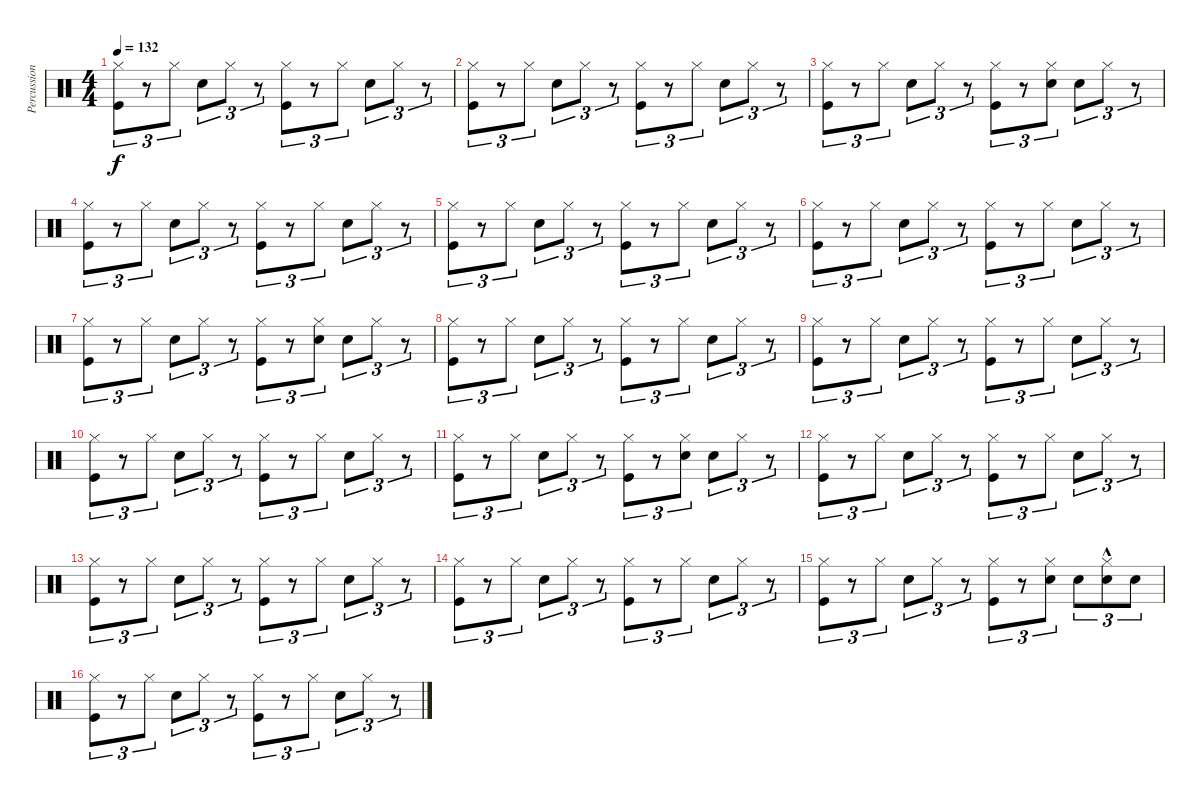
\track ("Percussions" "Percussion") {instrument percussion}
\staff {score}
\articulation defaults
\ts (4 4)
\tempo 132
\clef neutral
\ks c
("Kick (hit)" "Hi-Hat (closed)").8{tu (3 2) dy f} r.8{tu (3 2)} "Hi-Hat (closed)".8{tu (3 2)} "Snare (hit) 2".8{tu (3 2)} "Hi-Hat (closed)".8{tu (3 2)} r.8{tu (3 2)} ("Kick (hit)" "Hi-Hat (closed)").8{tu (3 2)} r.8{tu (3 2)} "Hi-Hat (closed)".8{tu (3 2)} "Snare (hit) 2".8{tu (3 2)} "Hi-Hat (closed)".8{tu (3 2)} r.8{tu (3 2)} |
("Kick (hit)" "Hi-Hat (closed)").8{tu (3 2)} r.8{tu (3 2)} "Hi-Hat (closed)".8{tu (3 2)} "Snare (hit) 2".8{tu (3 2)} "Hi-Hat (closed)".8{tu (3 2)} r.8{tu (3 2)} ("Kick (hit)" "Hi-Hat (closed)").8{tu (3 2)} r.8{tu (3 2)} "Hi-Hat (closed)".8{tu (3 2)} "Snare (hit) 2".8{tu (3 2)} "Hi-Hat (closed)".8{tu (3 2)} r.8{tu (3 2)} |
("Kick (hit)" "Hi-Hat (closed)").8{tu (3 2)} r.8{tu (3 2)} "Hi-Hat (closed)".8{tu (3 2)} "Snare (hit) 2".8{tu (3 2)} "Hi-Hat (closed)".8{tu (3 2)} r.8{tu (3 2)} ("Kick (hit)" "Hi-Hat (closed)").8{tu (3 2)} r.8{tu (3 2)} ("Hi-Hat (closed)" "Snare (hit) 2").8{tu (3 2)} "Snare (hit) 2".8{tu (3 2)} "Hi-Hat (closed)".8{tu (3 2)} r.8{tu (3 2)} |
("Kick (hit)" "Hi-Hat (closed)").8{tu (3 2)} r.8{tu (3 2)} "Hi-Hat (closed)".8{tu (3 2)} "Snare (hit) 2".8{tu (3 2)} "Hi-Hat (closed)".8{tu (3 2)} r.8{tu (3 2)} ("Kick (hit)" "Hi-Hat (closed)").8{tu (3 2)} r.8{tu (3 2)} "Hi-Hat (closed)".8{tu (3 2)} "Snare (hit) 2".8{tu (3 2)} "Hi-Hat (closed)".8{tu (3 2)} r.8{tu (3 2)} |
("Kick (hit)" "Hi-Hat (closed)").8{tu (3 2)} r.8{tu (3 2)} "Hi-Hat (closed)".8{tu (3 2)} "Snare (hit) 2".8{tu (3 2)} "Hi-Hat (closed)".8{tu (3 2)} r.8{tu (3 2)} ("Kick (hit)" "Hi-Hat (closed)").8{tu (3 2)} r.8{tu (3 2)} "Hi-Hat (closed)".8{tu (3 2)} "Snare (hit) 2".8{tu (3 2)} "Hi-Hat (closed)".8{tu (3 2)} r.8{tu (3 2)} |
("Kick (hit)" "Hi-Hat (closed)").8{tu (3 2)} r.8{tu (3 2)} "Hi-Hat (closed)".8{tu (3 2)} "Snare (hit) 2".8{tu (3 2)} "Hi-Hat (closed)".8{tu (3 2)} r.8{tu (3 2)} ("Kick (hit)" "Hi-Hat (closed)").8{tu (3 2)} r.8{tu (3 2)} "Hi-Hat (closed)".8{tu (3 2)} "Snare (hit) 2".8{tu (3 2)} "Hi-Hat (closed)".8{tu (3 2)} r.8{tu (3 2)} |
("Kick (hit)" "Hi-Hat (closed)").8{tu (3 2)} r.8{tu (3 2)} "Hi-Hat (closed)".8{tu (3 2)} "Snare (hit) 2".8{tu (3 2)} "Hi-Hat (closed)".8{tu (3 2)} r.8{tu (3 2)} ("Kick (hit)" "Hi-Hat (closed)").8{tu (3 2)} r.8{tu (3 2)} ("Hi-Hat (closed)" "Snare (hit) 2").8{tu (3 2)} "Snare (hit) 2".8{tu (3 2)} "Hi-Hat (closed)".8{tu (3 2)} r.8{tu (3 2)} |
("Kick (hit)" "Hi-Hat (closed)").8{tu (3 2)} r.8{tu (3 2)} "Hi-Hat (closed)".8{tu (3 2)} "Snare (hit) 2".8{tu (3 2)} "Hi-Hat (closed)".8{tu (3 2)} r.8{tu (3 2)} ("Kick (hit)" "Hi-Hat (closed)").8{tu (3 2)} r.8{tu (3 2)} "Hi-Hat (closed)".8{tu (3 2)} "Snare (hit) 2".8{tu (3 2)} "Hi-Hat (closed)".8{tu (3 2)} r.8{tu (3 2)} |
("Kick (hit)" "Hi-Hat (closed)").8{tu (3 2)} r.8{tu (3 2)} "Hi-Hat (closed)".8{tu (3 2)} "Snare (hit) 2".8{tu (3 2)} "Hi-Hat (closed)".8{tu (3 2)} r.8{tu (3 2)} ("Kick (hit)" "Hi-Hat (closed)").8{tu (3 2)} r.8{tu (3 2)} "Hi-Hat (closed)".8{tu (3 2)} "Snare (hit) 2".8{tu (3 2)} "Hi-Hat (closed)".8{tu (3 2)} r.8{tu (3 2)} |
("Kick (hit)" "Hi-Hat (closed)").8{tu (3 2)} r.8{tu (3 2)} "Hi-Hat (closed)".8{tu (3 2)} "Snare (hit) 2".8{tu (3 2)} "Hi-Hat (closed)".8{tu (3 2)} r.8{tu (3 2)} ("Kick (hit)" "Hi-Hat (closed)").8{tu (3 2)} r.8{tu (3 2)} "Hi-Hat (closed)".8{tu (3 2)} "Snare (hit) 2".8{tu (3 2)} "Hi-Hat (closed)".8{tu (3 2)} r.8{tu (3 2)} |
("Kick (hit)" "Hi-Hat (closed)").8{tu (3 2)} r.8{tu (3 2)} "Hi-Hat (closed)".8{tu (3 2)} "Snare (hit) 2".8{tu (3 2)} "Hi-Hat (closed)".8{tu (3 2)} r.8{tu (3 2)} ("Kick (hit)" "Hi-Hat (closed)").8{tu (3 2)} r.8{tu (3 2)} ("Hi-Hat (closed)" "Snare (hit) 2").8{tu (3 2)} "Snare (hit) 2".8{tu (3 2)} "Hi-Hat (closed)".8{tu (3 2)} r.8{tu (3 2)} |
("Kick (hit)" "Hi-Hat (closed)").8{tu (3 2)} r.8{tu (3 2)} "Hi-Hat (closed)".8{tu (3 2)} "Snare (hit) 2".8{tu (3 2)} "Hi-Hat (closed)".8{tu (3 2)} r.8{tu (3 2)} ("Kick (hit)" "Hi-Hat (closed)").8{tu (3 2)} r.8{tu (3 2)} "Hi-Hat (closed)".8{tu (3 2)} "Snare (hit) 2".8{tu (3 2)} "Hi-Hat (closed)".8{tu (3 2)} r.8{tu (3 2)} |
("Kick (hit)" "Hi-Hat (closed)").8{tu (3 2)} r.8{tu (3 2)} "Hi-Hat (closed)".8{tu (3 2)} "Snare (hit) 2".8{tu (3 2)} "Hi-Hat (closed)".8{tu (3 2)} r.8{tu (3 2)} ("Kick (hit)" "Hi-Hat (closed)").8{tu (3 2)} r.8{tu (3 2)} "Hi-Hat (closed)".8{tu (3 2)} "Snare (hit) 2".8{tu (3 2)} "Hi-Hat (closed)".8{tu (3 2)} r.8{tu (3 2)} |
("Kick (hit)" "Hi-Hat (closed)").8{tu (3 2)} r.8{tu (3 2)} "Hi-Hat (closed)".8{tu (3 2)} "Snare (hit) 2".8{tu (3 2)} "Hi-Hat (closed)".8{tu (3 2)} r.8{tu (3 2)} ("Kick (hit)" "Hi-Hat (closed)").8{tu (3 2)} r.8{tu (3 2)} "Hi-Hat (closed)".8{tu (3 2)} "Snare (hit) 2".8{tu (3 2)} "Hi-Hat (closed)".8{tu (3 2)} r.8{tu (3 2)} |
("Kick (hit)" "Hi-Hat (closed)").8{tu (3 2)} r.8{tu (3 2)} "Hi-Hat (closed)".8{tu (3 2)} "Snare (hit) 2".8{tu (3 2)} "Hi-Hat (closed)".8{tu (3 2)} r.8{tu (3 2)} ("Kick (hit)" "Hi-Hat (closed)").8{tu (3 2)} r.8{tu (3 2)} ("Hi-Hat (closed)" "Snare (hit) 2").8{tu (3 2)} "Snare (hit) 2".8{tu (3 2)} ("Hi-Hat (closed)"{hac} "Snare (hit) 2"{hac}).8{tu (3 2)} "Snare (hit) 2".8{tu (3 2)} |
("Kick (hit)" "Hi-Hat (closed)").8{tu (3 2)} r.8{tu (3 2)} "Hi-Hat (closed)".8{tu (3 2)} "Snare (hit) 2".8{tu (3 2)} "Hi-Hat (closed)".8{tu (3 2)} r.8{tu (3 2)} ("Kick (hit)" "Hi-Hat (closed)").8{tu (3 2)} r.8{tu (3 2)} "Hi-Hat (closed)".8{tu (3 2)} "Snare (hit) 2".8{tu (3 2)} "Hi-Hat (closed)".8{tu (3 2)} r.8{tu (3 2)}
